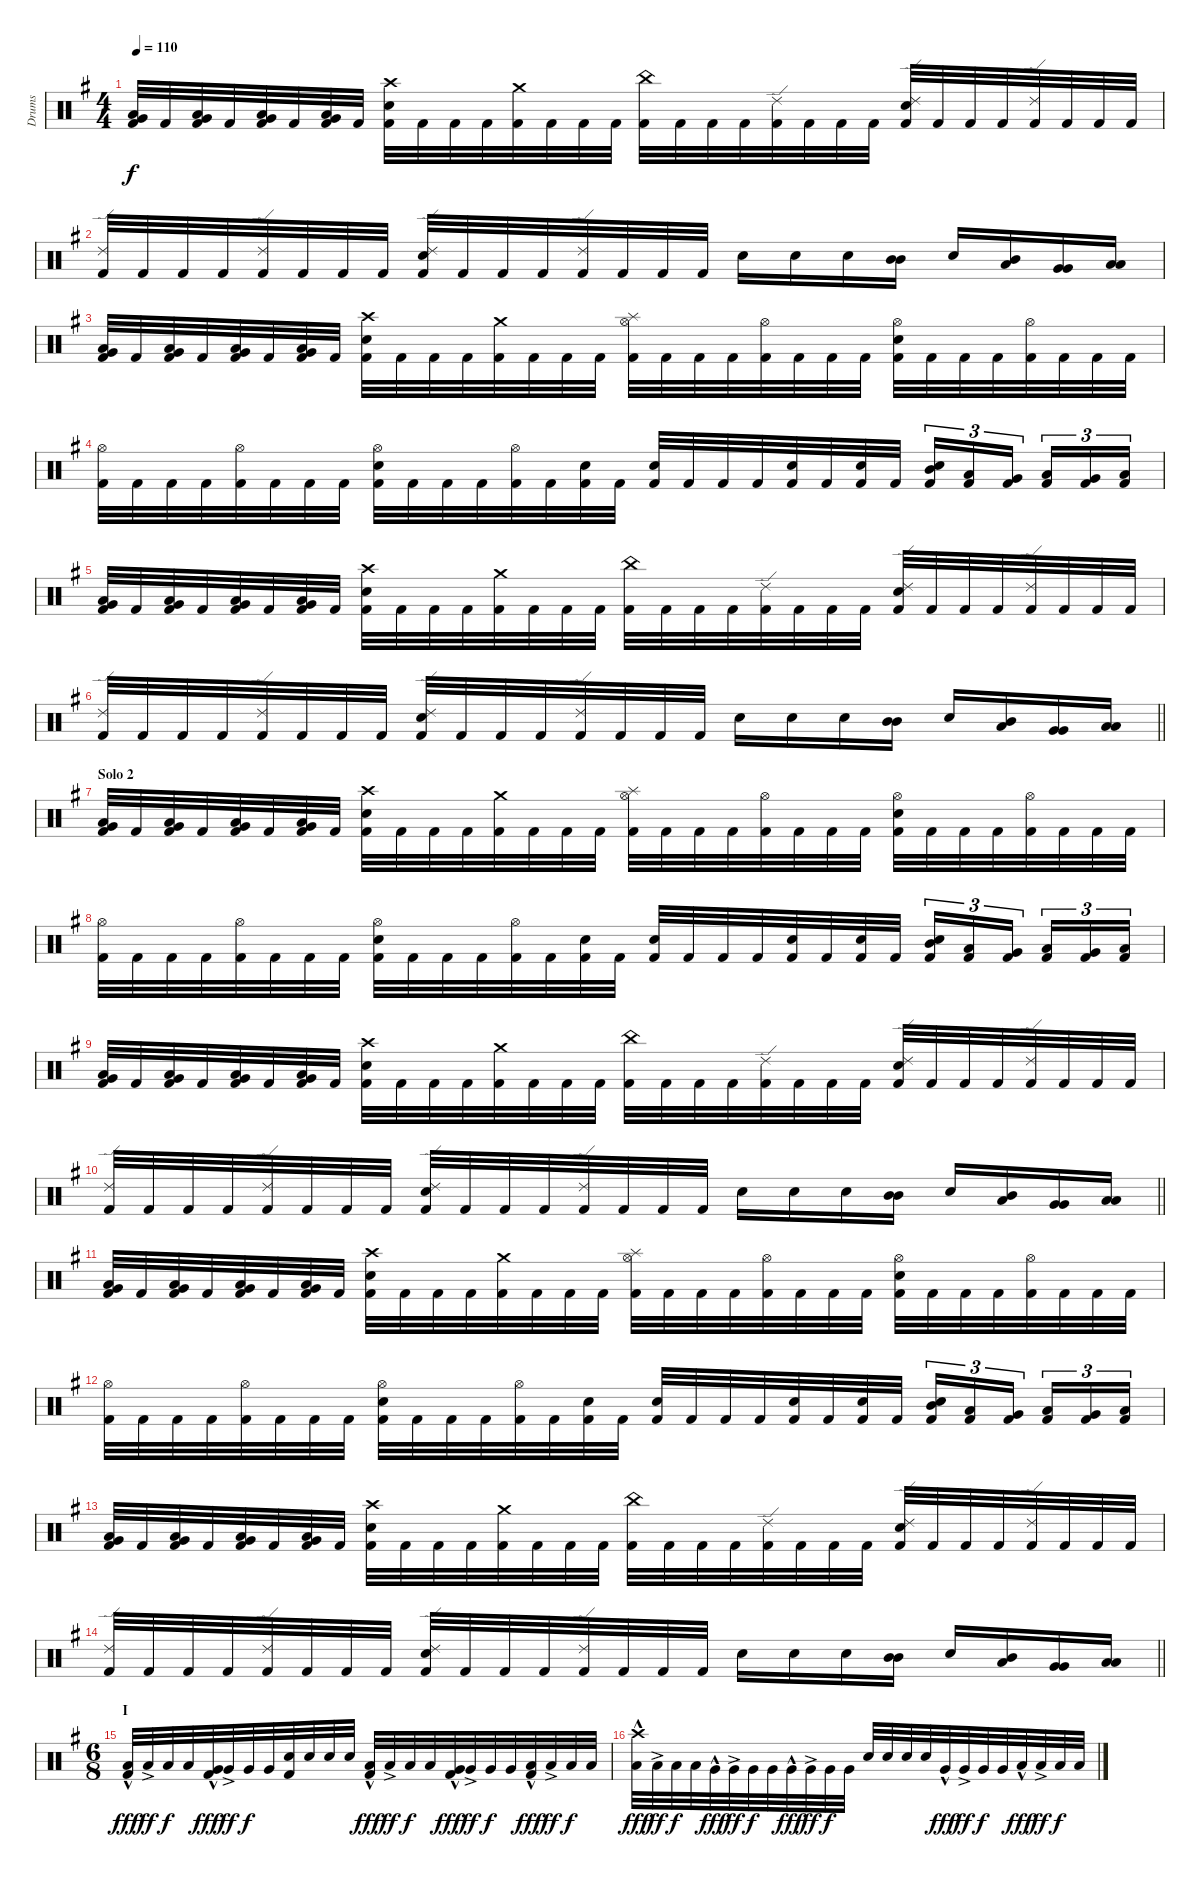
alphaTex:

\track ("Drums" "Drums") {instrument percussion}
\staff {score}
\articulation defaults
\ts (4 4)
\tempo 110
\clef neutral
\ks eminor
("Very Low Tom (hit)" "Low Floor Tom (hit)" "Kick (hit) 2").32{dy f} "Kick (hit) 2".32 ("Very Low Tom (hit)" "Low Floor Tom (hit)" "Kick (hit) 2").32 "Kick (hit) 2".32 ("Very Low Tom (hit)" "Low Floor Tom (hit)" "Kick (hit) 2").32 "Kick (hit) 2".32 ("Very Low Tom (hit)" "Low Floor Tom (hit)" "Kick (hit) 2").32 "Kick (hit) 2".32 ("Crash high (hit)" "Snare (hit) 2" "Kick (hit) 2").32 "Kick (hit) 2".32 "Kick (hit) 2".32 "Kick (hit) 2".32 ("Crash medium (hit)" "Kick (hit) 2").32 "Kick (hit) 2".32 "Kick (hit) 2".32 "Kick (hit) 2".32 ("China (hit)" "Kick (hit) 2").32 "Kick (hit) 2".32 "Kick (hit) 2".32 "Kick (hit) 2".32 ("Ride (edge) 2" "Kick (hit) 2").32 "Kick (hit) 2".32 "Kick (hit) 2".32 "Kick (hit) 2".32 ("Ride (edge) 2" "Snare (hit) 2" "Kick (hit) 2").32 "Kick (hit) 2".32 "Kick (hit) 2".32 "Kick (hit) 2".32 ("Ride (edge) 2" "Kick (hit) 2").32 "Kick (hit) 2".32 "Kick (hit) 2".32 "Kick (hit) 2".32 |
("Ride (edge) 2" "Kick (hit) 2").32 "Kick (hit) 2".32 "Kick (hit) 2".32 "Kick (hit) 2".32 ("Ride (edge) 2" "Kick (hit) 2").32 "Kick (hit) 2".32 "Kick (hit) 2".32 "Kick (hit) 2".32 ("Ride (edge) 2" "Snare (hit) 2" "Kick (hit) 2").32 "Kick (hit) 2".32 "Kick (hit) 2".32 "Kick (hit) 2".32 ("Ride (edge) 2" "Kick (hit) 2").32 "Kick (hit) 2".32 "Kick (hit) 2".32 "Kick (hit) 2".32 "Snare (hit) 2".16 "Snare (hit) 2".16 "Snare (hit) 2".16 ("Mid Tom (hit)" "Mid Tom (hit)").16 "Snare (hit) 2".16 ("Mid Tom (hit)" "Low Tom (hit)").16 ("Very Low Tom (hit)" "Very Low Tom (hit)").16 ("Low Floor Tom (hit)" "Low Floor Tom (hit)").16 |
("Very Low Tom (hit)" "Low Floor Tom (hit)" "Kick (hit) 2").32 "Kick (hit) 2".32 ("Very Low Tom (hit)" "Low Floor Tom (hit)" "Kick (hit) 2").32 "Kick (hit) 2".32 ("Very Low Tom (hit)" "Low Floor Tom (hit)" "Kick (hit) 2").32 "Kick (hit) 2".32 ("Very Low Tom (hit)" "Low Floor Tom (hit)" "Kick (hit) 2").32 "Kick (hit) 2".32 ("Crash high (hit)" "Snare (hit) 2" "Kick (hit) 2").32 "Kick (hit) 2".32 "Kick (hit) 2".32 "Kick (hit) 2".32 ("Crash medium (hit)" "Kick (hit) 2").32 "Kick (hit) 2".32 "Kick (hit) 2".32 "Kick (hit) 2".32 ("Splash (hit)" "Hi-Hat (open)" "Kick (hit) 2").32 "Kick (hit) 2".32 "Kick (hit) 2".32 "Kick (hit) 2".32 ("Hi-Hat (open)" "Kick (hit) 2").32 "Kick (hit) 2".32 "Kick (hit) 2".32 "Kick (hit) 2".32 ("Hi-Hat (open)" "Snare (hit) 2" "Kick (hit) 2").32 "Kick (hit) 2".32 "Kick (hit) 2".32 "Kick (hit) 2".32 ("Hi-Hat (open)" "Kick (hit) 2").32 "Kick (hit) 2".32 "Kick (hit) 2".32 "Kick (hit) 2".32 |
("Hi-Hat (open)" "Kick (hit) 2").32 "Kick (hit) 2".32 "Kick (hit) 2".32 "Kick (hit) 2".32 ("Hi-Hat (open)" "Kick (hit) 2").32 "Kick (hit) 2".32 "Kick (hit) 2".32 "Kick (hit) 2".32 ("Hi-Hat (open)" "Snare (hit) 2" "Kick (hit) 2").32 "Kick (hit) 2".32 "Kick (hit) 2".32 "Kick (hit) 2".32 ("Hi-Hat (open)" "Kick (hit) 2").32 "Kick (hit) 2".32 ("Snare (hit) 2" "Kick (hit) 2").32 "Kick (hit) 2".32 ("Snare (hit) 2" "Kick (hit) 2").32 "Kick (hit) 2".32 "Kick (hit) 2".32 "Kick (hit) 2".32 ("Snare (hit) 2" "Kick (hit) 2").32 "Kick (hit) 2".32 ("Snare (hit) 2" "Kick (hit) 2").32 "Kick (hit) 2".32 ("Mid Tom (hit)" "Snare (hit) 2" "Kick (hit) 2").16{tu (3 2)} ("Low Tom (hit)" "Kick (hit) 2").16{tu (3 2)} ("Very Low Tom (hit)" "Kick (hit) 2").16{tu (3 2) beam splitsecondary} ("Low Tom (hit)" "Kick (hit) 2").16{tu (3 2)} ("Very Low Tom (hit)" "Kick (hit) 2").16{tu (3 2)} ("Low Floor Tom (hit)" "Kick (hit) 2").16{tu (3 2)} |
("Very Low Tom (hit)" "Low Floor Tom (hit)" "Kick (hit) 2").32 "Kick (hit) 2".32 ("Very Low Tom (hit)" "Low Floor Tom (hit)" "Kick (hit) 2").32 "Kick (hit) 2".32 ("Very Low Tom (hit)" "Low Floor Tom (hit)" "Kick (hit) 2").32 "Kick (hit) 2".32 ("Very Low Tom (hit)" "Low Floor Tom (hit)" "Kick (hit) 2").32 "Kick (hit) 2".32 ("Crash high (hit)" "Snare (hit) 2" "Kick (hit) 2").32 "Kick (hit) 2".32 "Kick (hit) 2".32 "Kick (hit) 2".32 ("Crash medium (hit)" "Kick (hit) 2").32 "Kick (hit) 2".32 "Kick (hit) 2".32 "Kick (hit) 2".32 ("China (hit)" "Kick (hit) 2").32 "Kick (hit) 2".32 "Kick (hit) 2".32 "Kick (hit) 2".32 ("Ride (edge) 2" "Kick (hit) 2").32 "Kick (hit) 2".32 "Kick (hit) 2".32 "Kick (hit) 2".32 ("Ride (edge) 2" "Snare (hit) 2" "Kick (hit) 2").32 "Kick (hit) 2".32 "Kick (hit) 2".32 "Kick (hit) 2".32 ("Ride (edge) 2" "Kick (hit) 2").32 "Kick (hit) 2".32 "Kick (hit) 2".32 "Kick (hit) 2".32 |
\barLineRight lightlight
("Ride (edge) 2" "Kick (hit) 2").32 "Kick (hit) 2".32 "Kick (hit) 2".32 "Kick (hit) 2".32 ("Ride (edge) 2" "Kick (hit) 2").32 "Kick (hit) 2".32 "Kick (hit) 2".32 "Kick (hit) 2".32 ("Ride (edge) 2" "Snare (hit) 2" "Kick (hit) 2").32 "Kick (hit) 2".32 "Kick (hit) 2".32 "Kick (hit) 2".32 ("Ride (edge) 2" "Kick (hit) 2").32 "Kick (hit) 2".32 "Kick (hit) 2".32 "Kick (hit) 2".32 "Snare (hit) 2".16 "Snare (hit) 2".16 "Snare (hit) 2".16 ("Mid Tom (hit)" "Mid Tom (hit)").16 "Snare (hit) 2".16 ("Mid Tom (hit)" "Low Tom (hit)").16 ("Very Low Tom (hit)" "Very Low Tom (hit)").16 ("Low Floor Tom (hit)" "Low Floor Tom (hit)").16 |
\section ("" "Solo 2")
("Very Low Tom (hit)" "Low Floor Tom (hit)" "Kick (hit) 2").32 "Kick (hit) 2".32 ("Very Low Tom (hit)" "Low Floor Tom (hit)" "Kick (hit) 2").32 "Kick (hit) 2".32 ("Very Low Tom (hit)" "Low Floor Tom (hit)" "Kick (hit) 2").32 "Kick (hit) 2".32 ("Very Low Tom (hit)" "Low Floor Tom (hit)" "Kick (hit) 2").32 "Kick (hit) 2".32 ("Crash high (hit)" "Snare (hit) 2" "Kick (hit) 2").32 "Kick (hit) 2".32 "Kick (hit) 2".32 "Kick (hit) 2".32 ("Crash medium (hit)" "Kick (hit) 2").32 "Kick (hit) 2".32 "Kick (hit) 2".32 "Kick (hit) 2".32 ("Splash (hit)" "Hi-Hat (open)" "Kick (hit) 2").32 "Kick (hit) 2".32 "Kick (hit) 2".32 "Kick (hit) 2".32 ("Hi-Hat (open)" "Kick (hit) 2").32 "Kick (hit) 2".32 "Kick (hit) 2".32 "Kick (hit) 2".32 ("Hi-Hat (open)" "Snare (hit) 2" "Kick (hit) 2").32 "Kick (hit) 2".32 "Kick (hit) 2".32 "Kick (hit) 2".32 ("Hi-Hat (open)" "Kick (hit) 2").32 "Kick (hit) 2".32 "Kick (hit) 2".32 "Kick (hit) 2".32 |
("Hi-Hat (open)" "Kick (hit) 2").32 "Kick (hit) 2".32 "Kick (hit) 2".32 "Kick (hit) 2".32 ("Hi-Hat (open)" "Kick (hit) 2").32 "Kick (hit) 2".32 "Kick (hit) 2".32 "Kick (hit) 2".32 ("Hi-Hat (open)" "Snare (hit) 2" "Kick (hit) 2").32 "Kick (hit) 2".32 "Kick (hit) 2".32 "Kick (hit) 2".32 ("Hi-Hat (open)" "Kick (hit) 2").32 "Kick (hit) 2".32 ("Snare (hit) 2" "Kick (hit) 2").32 "Kick (hit) 2".32 ("Snare (hit) 2" "Kick (hit) 2").32 "Kick (hit) 2".32 "Kick (hit) 2".32 "Kick (hit) 2".32 ("Snare (hit) 2" "Kick (hit) 2").32 "Kick (hit) 2".32 ("Snare (hit) 2" "Kick (hit) 2").32 "Kick (hit) 2".32 ("Mid Tom (hit)" "Snare (hit) 2" "Kick (hit) 2").16{tu (3 2)} ("Low Tom (hit)" "Kick (hit) 2").16{tu (3 2)} ("Very Low Tom (hit)" "Kick (hit) 2").16{tu (3 2) beam splitsecondary} ("Low Tom (hit)" "Kick (hit) 2").16{tu (3 2)} ("Very Low Tom (hit)" "Kick (hit) 2").16{tu (3 2)} ("Low Floor Tom (hit)" "Kick (hit) 2").16{tu (3 2)} |
("Very Low Tom (hit)" "Low Floor Tom (hit)" "Kick (hit) 2").32 "Kick (hit) 2".32 ("Very Low Tom (hit)" "Low Floor Tom (hit)" "Kick (hit) 2").32 "Kick (hit) 2".32 ("Very Low Tom (hit)" "Low Floor Tom (hit)" "Kick (hit) 2").32 "Kick (hit) 2".32 ("Very Low Tom (hit)" "Low Floor Tom (hit)" "Kick (hit) 2").32 "Kick (hit) 2".32 ("Crash high (hit)" "Snare (hit) 2" "Kick (hit) 2").32 "Kick (hit) 2".32 "Kick (hit) 2".32 "Kick (hit) 2".32 ("Crash medium (hit)" "Kick (hit) 2").32 "Kick (hit) 2".32 "Kick (hit) 2".32 "Kick (hit) 2".32 ("China (hit)" "Kick (hit) 2").32 "Kick (hit) 2".32 "Kick (hit) 2".32 "Kick (hit) 2".32 ("Ride (edge) 2" "Kick (hit) 2").32 "Kick (hit) 2".32 "Kick (hit) 2".32 "Kick (hit) 2".32 ("Ride (edge) 2" "Snare (hit) 2" "Kick (hit) 2").32 "Kick (hit) 2".32 "Kick (hit) 2".32 "Kick (hit) 2".32 ("Ride (edge) 2" "Kick (hit) 2").32 "Kick (hit) 2".32 "Kick (hit) 2".32 "Kick (hit) 2".32 |
\barLineRight lightlight
("Ride (edge) 2" "Kick (hit) 2").32 "Kick (hit) 2".32 "Kick (hit) 2".32 "Kick (hit) 2".32 ("Ride (edge) 2" "Kick (hit) 2").32 "Kick (hit) 2".32 "Kick (hit) 2".32 "Kick (hit) 2".32 ("Ride (edge) 2" "Snare (hit) 2" "Kick (hit) 2").32 "Kick (hit) 2".32 "Kick (hit) 2".32 "Kick (hit) 2".32 ("Ride (edge) 2" "Kick (hit) 2").32 "Kick (hit) 2".32 "Kick (hit) 2".32 "Kick (hit) 2".32 "Snare (hit) 2".16 "Snare (hit) 2".16 "Snare (hit) 2".16 ("Mid Tom (hit)" "Mid Tom (hit)").16 "Snare (hit) 2".16 ("Mid Tom (hit)" "Low Tom (hit)").16 ("Very Low Tom (hit)" "Very Low Tom (hit)").16 ("Low Floor Tom (hit)" "Low Floor Tom (hit)").16 |
("Very Low Tom (hit)" "Low Floor Tom (hit)" "Kick (hit) 2").32 "Kick (hit) 2".32 ("Very Low Tom (hit)" "Low Floor Tom (hit)" "Kick (hit) 2").32 "Kick (hit) 2".32 ("Very Low Tom (hit)" "Low Floor Tom (hit)" "Kick (hit) 2").32 "Kick (hit) 2".32 ("Very Low Tom (hit)" "Low Floor Tom (hit)" "Kick (hit) 2").32 "Kick (hit) 2".32 ("Crash high (hit)" "Snare (hit) 2" "Kick (hit) 2").32 "Kick (hit) 2".32 "Kick (hit) 2".32 "Kick (hit) 2".32 ("Crash medium (hit)" "Kick (hit) 2").32 "Kick (hit) 2".32 "Kick (hit) 2".32 "Kick (hit) 2".32 ("Splash (hit)" "Hi-Hat (open)" "Kick (hit) 2").32 "Kick (hit) 2".32 "Kick (hit) 2".32 "Kick (hit) 2".32 ("Hi-Hat (open)" "Kick (hit) 2").32 "Kick (hit) 2".32 "Kick (hit) 2".32 "Kick (hit) 2".32 ("Hi-Hat (open)" "Snare (hit) 2" "Kick (hit) 2").32 "Kick (hit) 2".32 "Kick (hit) 2".32 "Kick (hit) 2".32 ("Hi-Hat (open)" "Kick (hit) 2").32 "Kick (hit) 2".32 "Kick (hit) 2".32 "Kick (hit) 2".32 |
("Hi-Hat (open)" "Kick (hit) 2").32 "Kick (hit) 2".32 "Kick (hit) 2".32 "Kick (hit) 2".32 ("Hi-Hat (open)" "Kick (hit) 2").32 "Kick (hit) 2".32 "Kick (hit) 2".32 "Kick (hit) 2".32 ("Hi-Hat (open)" "Snare (hit) 2" "Kick (hit) 2").32 "Kick (hit) 2".32 "Kick (hit) 2".32 "Kick (hit) 2".32 ("Hi-Hat (open)" "Kick (hit) 2").32 "Kick (hit) 2".32 ("Snare (hit) 2" "Kick (hit) 2").32 "Kick (hit) 2".32 ("Snare (hit) 2" "Kick (hit) 2").32 "Kick (hit) 2".32 "Kick (hit) 2".32 "Kick (hit) 2".32 ("Snare (hit) 2" "Kick (hit) 2").32 "Kick (hit) 2".32 ("Snare (hit) 2" "Kick (hit) 2").32 "Kick (hit) 2".32 ("Mid Tom (hit)" "Snare (hit) 2" "Kick (hit) 2").16{tu (3 2)} ("Low Tom (hit)" "Kick (hit) 2").16{tu (3 2)} ("Very Low Tom (hit)" "Kick (hit) 2").16{tu (3 2) beam splitsecondary} ("Low Tom (hit)" "Kick (hit) 2").16{tu (3 2)} ("Very Low Tom (hit)" "Kick (hit) 2").16{tu (3 2)} ("Low Floor Tom (hit)" "Kick (hit) 2").16{tu (3 2)} |
("Very Low Tom (hit)" "Low Floor Tom (hit)" "Kick (hit) 2").32 "Kick (hit) 2".32 ("Very Low Tom (hit)" "Low Floor Tom (hit)" "Kick (hit) 2").32 "Kick (hit) 2".32 ("Very Low Tom (hit)" "Low Floor Tom (hit)" "Kick (hit) 2").32 "Kick (hit) 2".32 ("Very Low Tom (hit)" "Low Floor Tom (hit)" "Kick (hit) 2").32 "Kick (hit) 2".32 ("Crash high (hit)" "Snare (hit) 2" "Kick (hit) 2").32 "Kick (hit) 2".32 "Kick (hit) 2".32 "Kick (hit) 2".32 ("Crash medium (hit)" "Kick (hit) 2").32 "Kick (hit) 2".32 "Kick (hit) 2".32 "Kick (hit) 2".32 ("China (hit)" "Kick (hit) 2").32 "Kick (hit) 2".32 "Kick (hit) 2".32 "Kick (hit) 2".32 ("Ride (edge) 2" "Kick (hit) 2").32 "Kick (hit) 2".32 "Kick (hit) 2".32 "Kick (hit) 2".32 ("Ride (edge) 2" "Snare (hit) 2" "Kick (hit) 2").32 "Kick (hit) 2".32 "Kick (hit) 2".32 "Kick (hit) 2".32 ("Ride (edge) 2" "Kick (hit) 2").32 "Kick (hit) 2".32 "Kick (hit) 2".32 "Kick (hit) 2".32 |
\barLineRight lightlight
("Ride (edge) 2" "Kick (hit) 2").32 "Kick (hit) 2".32 "Kick (hit) 2".32 "Kick (hit) 2".32 ("Ride (edge) 2" "Kick (hit) 2").32 "Kick (hit) 2".32 "Kick (hit) 2".32 "Kick (hit) 2".32 ("Ride (edge) 2" "Snare (hit) 2" "Kick (hit) 2").32 "Kick (hit) 2".32 "Kick (hit) 2".32 "Kick (hit) 2".32 ("Ride (edge) 2" "Kick (hit) 2").32 "Kick (hit) 2".32 "Kick (hit) 2".32 "Kick (hit) 2".32 "Snare (hit) 2".16 "Snare (hit) 2".16 "Snare (hit) 2".16 ("Mid Tom (hit)" "Mid Tom (hit)").16 "Snare (hit) 2".16 ("Mid Tom (hit)" "Low Tom (hit)").16 ("Very Low Tom (hit)" "Very Low Tom (hit)").16 ("Low Floor Tom (hit)" "Low Floor Tom (hit)").16 |
\ts (6 8)
\section ("" "I")
("Low Floor Tom (hit)"{hac} "Kick (hit) 2").32{dy fff} "Low Floor Tom (hit)"{ac}.32{dy ff} "Low Floor Tom (hit)".32{dy f} "Low Floor Tom (hit)".32 ("Very Low Tom (hit)"{hac} "Kick (hit) 2").32{dy fff} "Very Low Tom (hit)"{ac}.32{dy ff} "Very Low Tom (hit)".32{dy f} "Very Low Tom (hit)".32 ("Snare (hit) 2" "Kick (hit) 2").32 "Snare (hit) 2".32 "Snare (hit) 2".32 "Snare (hit) 2".32 ("Low Tom (hit)"{hac} "Kick (hit) 2").32{dy fff} "Low Tom (hit)"{ac}.32{dy ff} "Low Tom (hit)".32{dy f} "Low Tom (hit)".32 ("Very Low Tom (hit)"{hac} "Kick (hit) 2").32{dy fff} "Very Low Tom (hit)"{ac}.32{dy ff} "Very Low Tom (hit)".32{dy f} "Very Low Tom (hit)".32 ("Low Floor Tom (hit)"{hac} "Kick (hit) 2").32{dy fff} "Low Floor Tom (hit)"{ac}.32{dy ff} "Low Floor Tom (hit)".32{dy f} "Low Floor Tom (hit)".32 |
("Crash high (hit)" "Low Floor Tom (hit)"{hac}).32{dy fff} "Low Floor Tom (hit)"{ac}.32{dy ff} "Low Floor Tom (hit)".32{dy f} "Low Floor Tom (hit)".32 "Very Low Tom (hit)"{hac}.32{dy fff} "Very Low Tom (hit)"{ac}.32{dy ff} "Very Low Tom (hit)".32{dy f} "Very Low Tom (hit)".32 "Very Low Tom (hit)"{hac}.32{dy fff} "Very Low Tom (hit)"{ac}.32{dy ff} "Very Low Tom (hit)".32{dy f} "Very Low Tom (hit)".32 "Snare (hit) 2".32 "Snare (hit) 2".32 "Snare (hit) 2".32 "Snare (hit) 2".32 "Very Low Tom (hit)"{hac}.32{dy fff} "Very Low Tom (hit)"{ac}.32{dy ff} "Very Low Tom (hit)".32{dy f} "Very Low Tom (hit)".32 "Low Floor Tom (hit)"{hac}.32{dy fff} "Low Floor Tom (hit)"{ac}.32{dy ff} "Low Floor Tom (hit)".32{dy f} "Low Floor Tom (hit)".32
